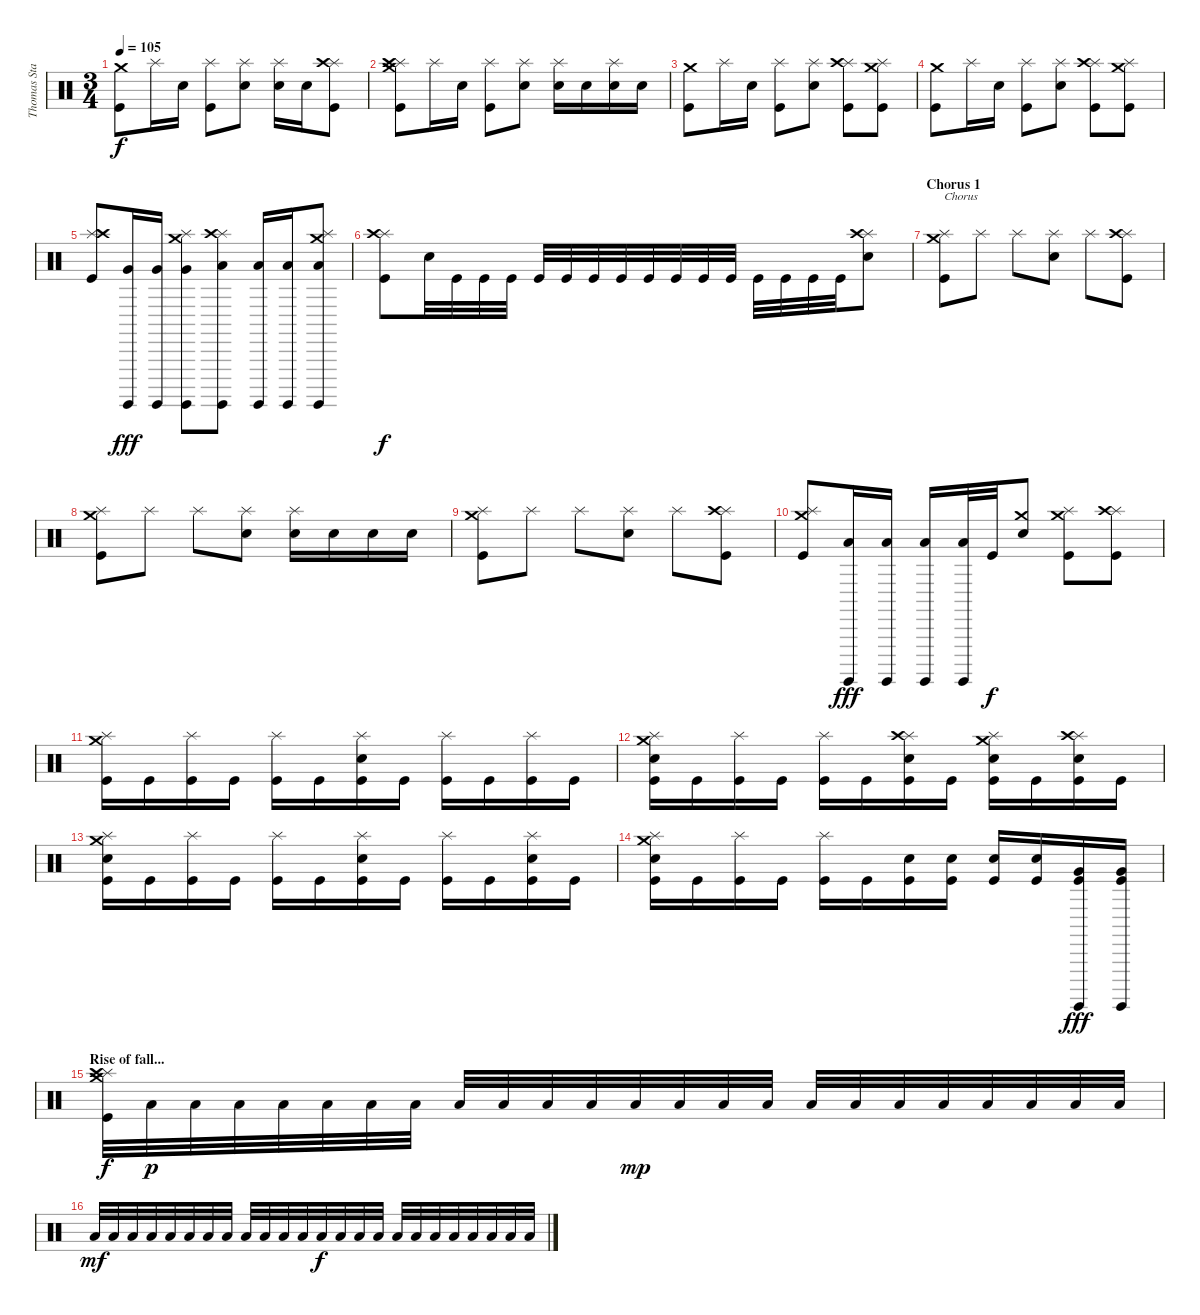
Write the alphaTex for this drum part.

\track ("Thomas Stauch" "Thomas Sta") {instrument percussion}
\staff {score}
\articulation defaults
\ts (3 4)
\tempo 105
\clef neutral
\ks c
("Crash medium (hit)" "Kick (hit)").8{dy f} "Splash (hit)".16 "Electric Snare (hit)".16 ("Splash (hit)" "Kick (hit)").8 ("Splash (hit)" "Electric Snare (hit)").8 ("Splash (hit)" "Electric Snare (hit)").16 "Electric Snare (hit)".16 ("Splash (hit)" "Crash high (hit)" "Kick (hit)").8 |
("Crash medium (hit)" "Splash (hit)" "Crash high (hit)" "Kick (hit)").8 "Splash (hit)".16 "Electric Snare (hit)".16 ("Splash (hit)" "Kick (hit)").8 ("Splash (hit)" "Electric Snare (hit)").8 ("Splash (hit)" "Electric Snare (hit)").16 "Electric Snare (hit)".16 ("Splash (hit)" "Electric Snare (hit)").16 "Electric Snare (hit)".16 |
("Crash medium (hit)" "Kick (hit)").8 "Splash (hit)".16 "Electric Snare (hit)".16 ("Splash (hit)" "Kick (hit)").8 ("Splash (hit)" "Electric Snare (hit)").8 ("Splash (hit)" "Crash high (hit)" "Kick (hit)").8 ("Crash medium (hit)" "Splash (hit)" "Kick (hit)").8 |
("Crash medium (hit)" "Kick (hit)").8 "Splash (hit)".16 "Electric Snare (hit)".16 ("Splash (hit)" "Kick (hit)").8 ("Splash (hit)" "Electric Snare (hit)").8 ("Splash (hit)" "Crash high (hit)" "Kick (hit)").8 ("Crash medium (hit)" "Splash (hit)" "Kick (hit)").8 |
("Splash (hit)" "Crash high (hit)" "Kick (hit)").8 ("Surdo (hit)" "Very Low Tom (hit)").16{dy fff} ("Surdo (hit)" "Very Low Tom (hit)").16 ("Crash medium (hit)" "Splash (hit)" "Surdo (hit)" "Very Low Tom (hit)").8 ("Splash (hit)" "Crash high (hit)" "Surdo (hit)" "Low Floor Tom (hit)").8 ("Surdo (hit)" "Low Floor Tom (hit)").16 ("Surdo (hit)" "Low Floor Tom (hit)").16 ("Crash medium (hit)" "Splash (hit)" "Surdo (hit)" "Low Floor Tom (hit)").8 |
("Splash (hit)" "Crash high (hit)" "Kick (hit)").8{dy f} "Electric Snare (hit)".32 "Kick (hit)".32 "Kick (hit)".32 "Kick (hit)".32 "Kick (hit)".32 "Kick (hit)".32 "Kick (hit)".32 "Kick (hit)".32 "Kick (hit)".32 "Kick (hit)".32 "Kick (hit)".32 "Kick (hit)".32 "Kick (hit)".32 "Kick (hit)".32 "Kick (hit)".32 "Kick (hit)".32 ("Splash (hit)" "Crash high (hit)" "Electric Snare (hit)").8 |
\section ("" "Chorus 1")
("Crash medium (hit)" "Splash (hit)" "Kick (hit)").8{txt "Chorus"} "Splash (hit)".8 "Splash (hit)".8 ("Splash (hit)" "Electric Snare (hit)").8 "Splash (hit)".8 ("Splash (hit)" "Crash high (hit)" "Kick (hit)").8 |
("Crash medium (hit)" "Splash (hit)" "Kick (hit)").8 "Splash (hit)".8 "Splash (hit)".8 ("Splash (hit)" "Electric Snare (hit)").8 ("Splash (hit)" "Electric Snare (hit)").16 "Electric Snare (hit)".16 "Electric Snare (hit)".16 "Electric Snare (hit)".16 |
("Crash medium (hit)" "Splash (hit)" "Kick (hit)").8 "Splash (hit)".8 "Splash (hit)".8 ("Splash (hit)" "Electric Snare (hit)").8 "Splash (hit)".8 ("Splash (hit)" "Crash high (hit)" "Kick (hit)").8 |
("Crash medium (hit)" "Splash (hit)" "Kick (hit)").8 ("Surdo (hit)" "Low Floor Tom (hit)").16{dy fff} ("Surdo (hit)" "Low Floor Tom (hit)").16 ("Surdo (hit)" "Low Floor Tom (hit)").16 ("Surdo (hit)" "Low Floor Tom (hit)").32 "Kick (hit)".32{dy f} ("Crash medium (hit)" "Electric Snare (hit)").8 ("Crash medium (hit)" "Splash (hit)" "Kick (hit)").8 ("Splash (hit)" "Crash high (hit)" "Kick (hit)").8 |
("Crash medium (hit)" "Splash (hit)" "Kick (hit)").16 "Kick (hit)".16 ("Splash (hit)" "Kick (hit)").16 "Kick (hit)".16 ("Splash (hit)" "Kick (hit)").16 "Kick (hit)".16 ("Splash (hit)" "Electric Snare (hit)" "Kick (hit)").16 "Kick (hit)".16 ("Splash (hit)" "Kick (hit)").16 "Kick (hit)".16 ("Splash (hit)" "Kick (hit)").16 "Kick (hit)".16 |
("Crash medium (hit)" "Splash (hit)" "Electric Snare (hit)" "Kick (hit)").16 "Kick (hit)".16 ("Splash (hit)" "Kick (hit)").16 "Kick (hit)".16 ("Splash (hit)" "Kick (hit)").16 "Kick (hit)".16 ("Splash (hit)" "Crash high (hit)" "Electric Snare (hit)" "Kick (hit)").16 "Kick (hit)".16 ("Crash medium (hit)" "Splash (hit)" "Electric Snare (hit)" "Kick (hit)").16 "Kick (hit)".16 ("Splash (hit)" "Crash high (hit)" "Electric Snare (hit)" "Kick (hit)").16 "Kick (hit)".16 |
("Crash medium (hit)" "Splash (hit)" "Electric Snare (hit)" "Kick (hit)").16 "Kick (hit)".16 ("Splash (hit)" "Kick (hit)").16 "Kick (hit)".16 ("Splash (hit)" "Kick (hit)").16 "Kick (hit)".16 ("Splash (hit)" "Electric Snare (hit)" "Kick (hit)").16 "Kick (hit)".16 ("Splash (hit)" "Kick (hit)").16 "Kick (hit)".16 ("Splash (hit)" "Electric Snare (hit)" "Kick (hit)").16 "Kick (hit)".16 |
("Crash medium (hit)" "Splash (hit)" "Electric Snare (hit)" "Kick (hit)").16 "Kick (hit)".16 ("Splash (hit)" "Kick (hit)").16 "Kick (hit)".16 ("Splash (hit)" "Kick (hit)").16 "Kick (hit)".16 ("Electric Snare (hit)" "Kick (hit)").16 ("Electric Snare (hit)" "Kick (hit)").16 ("Electric Snare (hit)" "Kick (hit)").16 ("Electric Snare (hit)" "Kick (hit)").16 ("Surdo (hit)" "Very Low Tom (hit)" "Kick (hit)").16{dy fff} ("Surdo (hit)" "Very Low Tom (hit)" "Kick (hit)").16 |
\section ("" "Rise of fall...")
("Crash medium (hit)" "Splash (hit)" "Crash high (hit)" "Kick (hit)").32{dy f} "Low Floor Tom (hit)".32{dy p} "Low Floor Tom (hit)".32 "Low Floor Tom (hit)".32 "Low Floor Tom (hit)".32 "Low Floor Tom (hit)".32 "Low Floor Tom (hit)".32 "Low Floor Tom (hit)".32 "Low Floor Tom (hit)".32 "Low Floor Tom (hit)".32 "Low Floor Tom (hit)".32 "Low Floor Tom (hit)".32 "Low Floor Tom (hit)".32{dy mp} "Low Floor Tom (hit)".32 "Low Floor Tom (hit)".32 "Low Floor Tom (hit)".32 "Low Floor Tom (hit)".32 "Low Floor Tom (hit)".32 "Low Floor Tom (hit)".32 "Low Floor Tom (hit)".32 "Low Floor Tom (hit)".32 "Low Floor Tom (hit)".32 "Low Floor Tom (hit)".32 "Low Floor Tom (hit)".32 |
"Low Floor Tom (hit)".32{dy mf} "Low Floor Tom (hit)".32 "Low Floor Tom (hit)".32 "Low Floor Tom (hit)".32 "Low Floor Tom (hit)".32 "Low Floor Tom (hit)".32 "Low Floor Tom (hit)".32 "Low Floor Tom (hit)".32 "Low Floor Tom (hit)".32 "Low Floor Tom (hit)".32 "Low Floor Tom (hit)".32 "Low Floor Tom (hit)".32 "Low Floor Tom (hit)".32{dy f} "Low Floor Tom (hit)".32 "Low Floor Tom (hit)".32 "Low Floor Tom (hit)".32 "Low Floor Tom (hit)".32 "Low Floor Tom (hit)".32 "Low Floor Tom (hit)".32 "Low Floor Tom (hit)".32 "Low Floor Tom (hit)".32 "Low Floor Tom (hit)".32 "Low Floor Tom (hit)".32 "Low Floor Tom (hit)".32
